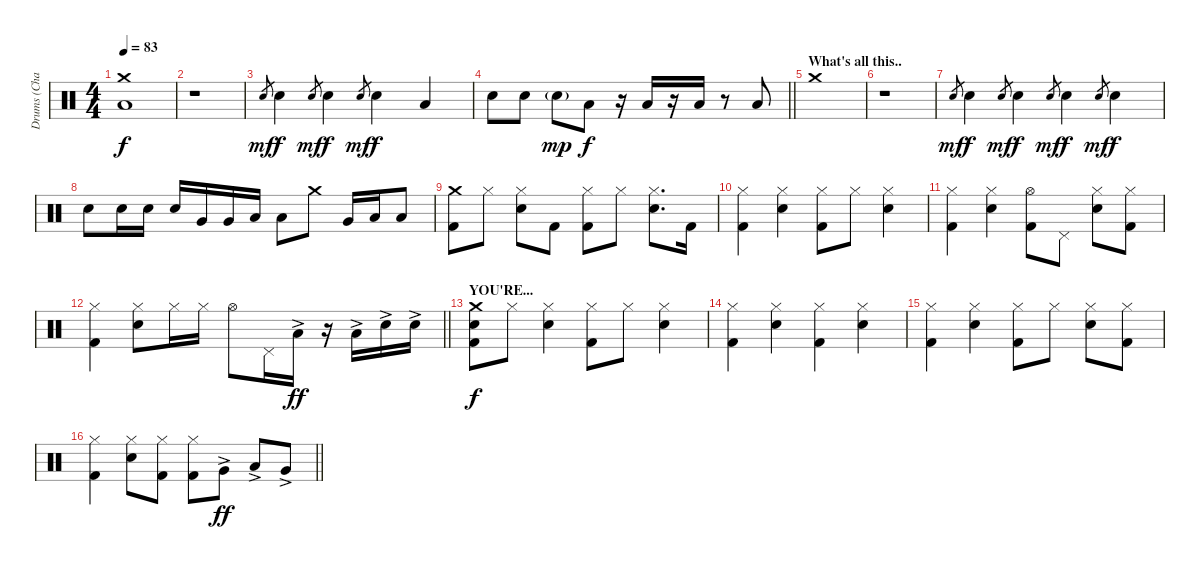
\track ("Drums (Charlie)" "Drums (Cha") {instrument percussion}
\staff {score}
\articulation defaults
\ts (4 4)
\tempo 83
\clef neutral
\ks c
("Crash medium (hit)" "Low Floor Tom (hit)").1{dy f} |
r.1 |
"Snare (hit) 2".8{gr dy mf} "Snare (hit) 2".4{dy f} "Snare (hit) 2".8{gr dy mf} "Snare (hit) 2".4{dy f} "Snare (hit) 2".8{gr dy mf} "Snare (hit) 2".4{dy f} "Low Tom (hit)".4 |
\barLineRight lightlight "Snare (hit) 2".8 "Snare (hit) 2".8 "Snare (hit) 2"{g}.8{dy mp} "Low Tom (hit)".8{dy f}
r.16 "Low Floor Tom (hit)".16 r.16 "Low Tom (hit)".16 r.8 "Low Tom (hit)".8 |
\section ("" "What's all this..")
"Crash medium (hit)".1 |
r.1 |
"Snare (hit) 2".8{gr dy mf} "Snare (hit) 2".4{dy f} "Snare (hit) 2".8{gr dy mf} "Snare (hit) 2".4{dy f} "Snare (hit) 2".8{gr dy mf} "Snare (hit) 2".4{dy f} "Snare (hit) 2".8{gr dy mf} "Snare (hit) 2".4{dy f} |
"Snare (hit) 2".8 "Snare (hit) 2".16 "Snare (hit) 2".16 "Snare (hit) 2".16 "Very Low Tom (hit)".16 "Very Low Tom (hit)".16 "Low Floor Tom (hit)".16 "Low Floor Tom (hit)".8 "Crash medium (hit)".8 "Very Low Tom (hit)".16 "Low Floor Tom (hit)".16 "Low Floor Tom (hit)".8 |
("Crash medium (hit)" "Kick (hit) 2").8 "Hi-Hat (closed)".8 ("Hi-Hat (closed)" "Snare (hit) 2").8 "Kick (hit) 2".8 ("Hi-Hat (closed)" "Kick (hit) 2").8 "Hi-Hat (closed)".8 ("Hi-Hat (closed)" "Snare (hit) 2").8{d} "Kick (hit) 2".16 |
("Hi-Hat (closed)" "Kick (hit) 2").4 ("Hi-Hat (closed)" "Snare (hit) 2").4 ("Hi-Hat (closed)" "Kick (hit) 2").8 "Hi-Hat (closed)".8 ("Hi-Hat (closed)" "Snare (hit) 2").4 |
("Hi-Hat (closed)" "Kick (hit) 2").4 ("Hi-Hat (closed)" "Snare (hit) 2").4 ("Hi-Hat (open)" "Kick (hit) 2").8 "Pedal Hi-Hat (hit)".8 ("Hi-Hat (closed)" "Snare (hit) 2").8 ("Hi-Hat (closed)" "Kick (hit) 2").8 |
\barLineRight lightlight
("Hi-Hat (closed)" "Kick (hit) 2").4 ("Hi-Hat (closed)" "Snare (hit) 2").8 "Hi-Hat (closed)".16 "Hi-Hat (closed)".16 "Hi-Hat (open)".8 "Pedal Hi-Hat (hit)".16 "Low Floor Tom (hit)"{ac}.16{dy ff} r.16 "Low Floor Tom (hit)"{ac}.16 "Snare (hit) 2"{ac}.16 "Snare (hit) 2"{ac}.16 |
\section ("" "YOU'RE...")
("Crash medium (hit)" "Snare (hit) 2" "Kick (hit) 2").8{dy f} "Hi-Hat (closed)".8 ("Hi-Hat (closed)" "Snare (hit) 2").4 ("Hi-Hat (closed)" "Kick (hit) 2").8 "Hi-Hat (closed)".8 ("Hi-Hat (closed)" "Snare (hit) 2").4 |
("Hi-Hat (closed)" "Kick (hit) 2").4 ("Hi-Hat (closed)" "Snare (hit) 2").4 ("Hi-Hat (closed)" "Kick (hit) 2").4 ("Hi-Hat (closed)" "Snare (hit) 2").4 |
("Hi-Hat (closed)" "Kick (hit) 2").4 ("Hi-Hat (closed)" "Snare (hit) 2").4 ("Hi-Hat (closed)" "Kick (hit) 2").8 "Hi-Hat (closed)".8 ("Hi-Hat (closed)" "Snare (hit) 2").8 ("Hi-Hat (closed)" "Kick (hit) 2").8 |
\barLineRight lightlight
("Hi-Hat (closed)" "Kick (hit) 2").4 ("Hi-Hat (closed)" "Snare (hit) 2").8 ("Hi-Hat (closed)" "Kick (hit) 2").8 ("Hi-Hat (closed)" "Kick (hit) 2").8 "Very Low Tom (hit)"{ac}.8{dy ff} "Low Floor Tom (hit)"{ac}.8 "Very Low Tom (hit)"{ac}.8
